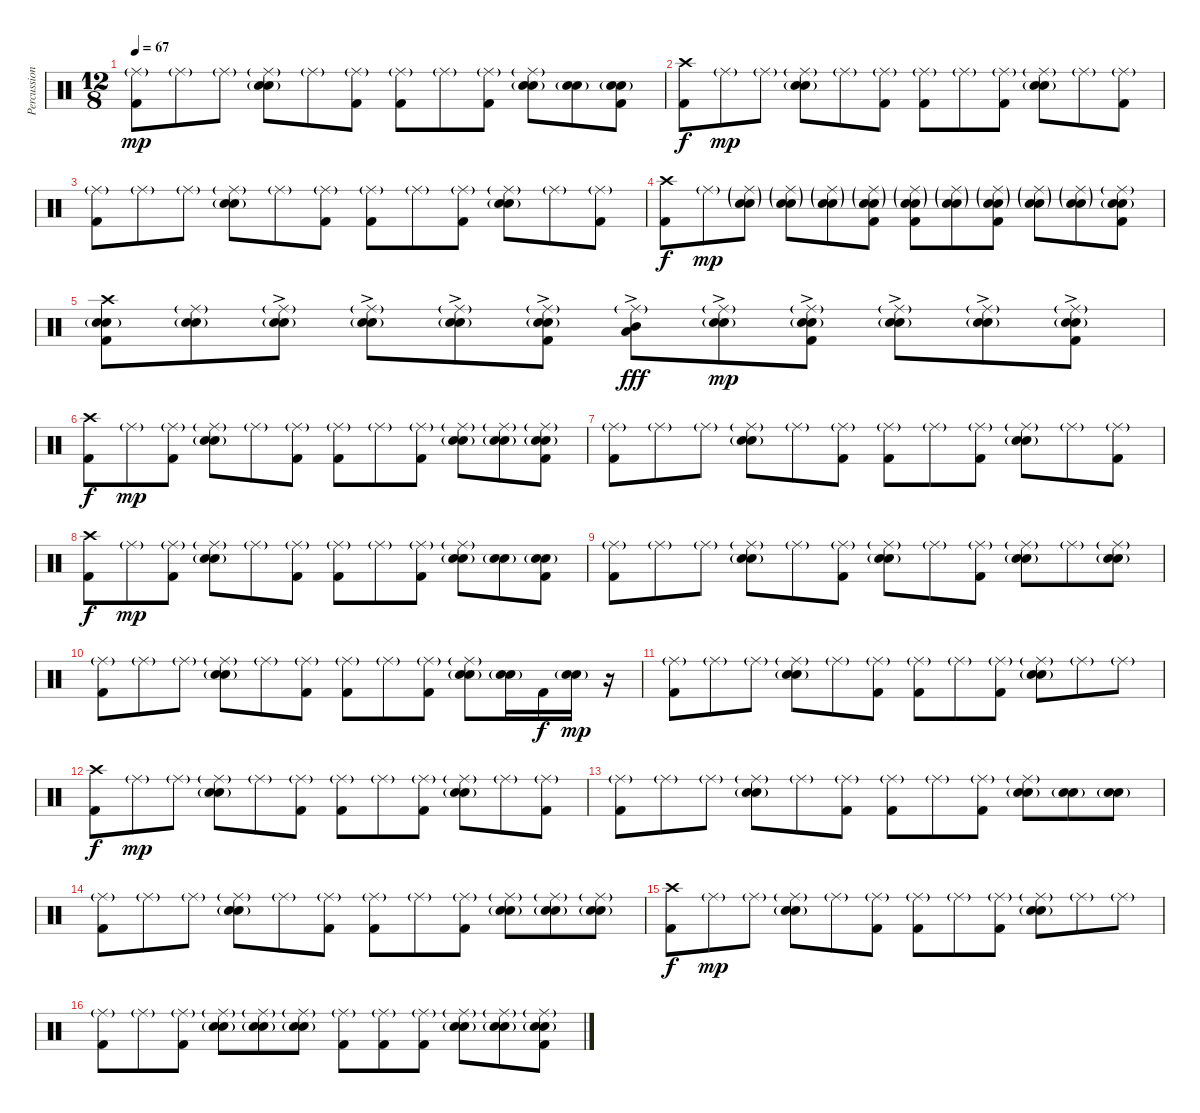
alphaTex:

\track ("Percussion" "Percussion") {instrument percussion}
\staff {score}
\articulation defaults
\ts (12 8)
\tempo 67
\clef neutral
\ks c
("Ride (middle)"{g} "Kick (hit) 2").8{dy mp} "Ride (middle)"{g}.8 "Ride (middle)"{g}.8 ("Ride (middle)"{g} "Electric Snare (hit)" "Snare (hit) 2"{g}).8 "Ride (middle)"{g}.8 ("Ride (middle)"{g} "Kick (hit) 2").8 ("Ride (middle)"{g} "Kick (hit) 2").8 "Ride (middle)"{g}.8 ("Ride (middle)"{g} "Kick (hit) 2").8 ("Ride (middle)"{g} "Electric Snare (hit)" "Snare (hit) 2"{g}).8 ("Electric Snare (hit)"{g} "Snare (hit) 2"{g}).8 ("Electric Snare (hit)" "Snare (hit) 2"{g} "Kick (hit) 2").8 |
("Crash high (hit)" "Kick (hit) 2").8{dy f} "Ride (middle)"{g}.8{dy mp} "Ride (middle)"{g}.8 ("Ride (middle)"{g} "Electric Snare (hit)" "Snare (hit) 2"{g}).8 "Ride (middle)"{g}.8 ("Ride (middle)"{g} "Kick (hit) 2").8 ("Ride (middle)"{g} "Kick (hit) 2").8 "Ride (middle)"{g}.8 ("Ride (middle)"{g} "Kick (hit) 2").8 ("Ride (middle)"{g} "Electric Snare (hit)" "Snare (hit) 2"{g}).8 "Ride (middle)"{g}.8 ("Ride (middle)"{g} "Kick (hit) 2").8 |
("Ride (middle)"{g} "Kick (hit) 2").8 "Ride (middle)"{g}.8 "Ride (middle)"{g}.8 ("Ride (middle)"{g} "Electric Snare (hit)" "Snare (hit) 2"{g}).8 "Ride (middle)"{g}.8 ("Ride (middle)"{g} "Kick (hit) 2").8 ("Ride (middle)"{g} "Kick (hit) 2").8 "Ride (middle)"{g}.8 ("Ride (middle)"{g} "Kick (hit) 2").8 ("Ride (middle)"{g} "Electric Snare (hit)" "Snare (hit) 2"{g}).8 "Ride (middle)"{g}.8 ("Ride (middle)"{g} "Kick (hit) 2").8 |
("Crash high (hit)" "Kick (hit) 2").8{dy f} "Ride (middle)"{g}.8{dy mp} ("Ride (middle)"{g} "Electric Snare (hit)"{g} "Snare (hit) 2"{g}).8 ("Ride (middle)"{g} "Electric Snare (hit)"{g} "Snare (hit) 2"{g}).8 ("Ride (middle)"{g} "Electric Snare (hit)"{g} "Snare (hit) 2"{g}).8 ("Ride (middle)"{g} "Electric Snare (hit)"{g} "Snare (hit) 2"{g} "Kick (hit) 2").8 ("Ride (middle)"{g} "Electric Snare (hit)"{g} "Snare (hit) 2"{g} "Kick (hit) 2").8 ("Ride (middle)"{g} "Electric Snare (hit)"{g} "Snare (hit) 2"{g}).8 ("Ride (middle)"{g} "Electric Snare (hit)"{g} "Snare (hit) 2"{g} "Kick (hit) 2").8 ("Ride (middle)"{g} "Electric Snare (hit)"{g} "Snare (hit) 2"{g}).8 ("Ride (middle)"{g} "Electric Snare (hit)"{g} "Snare (hit) 2"{g}).8 ("Ride (middle)"{g} "Electric Snare (hit)" "Snare (hit) 2"{g} "Kick (hit) 2").8 |
("Crash high (hit)" "Electric Snare (hit)" "Snare (hit) 2"{g} "Kick (hit) 2").8 ("Ride (middle)"{g} "Electric Snare (hit)" "Snare (hit) 2"{g}).8 ("Ride (middle)"{g} "Electric Snare (hit)"{ac} "Snare (hit) 2"{g}).8 ("Ride (middle)"{g} "Electric Snare (hit)"{ac} "Snare (hit) 2"{g}).8 ("Ride (middle)"{g} "Electric Snare (hit)"{ac} "Snare (hit) 2"{g}).8 ("Ride (middle)"{g} "Electric Snare (hit)"{ac} "Snare (hit) 2"{g} "Kick (hit) 2").8 ("Ride (middle)"{g} "Mid Tom (hit)"{ac} "Low Tom (hit)").8{dy fff} ("Ride (middle)"{g} "Electric Snare (hit)"{ac} "Snare (hit) 2"{g}).8{dy mp} ("Ride (middle)"{g} "Electric Snare (hit)"{ac} "Snare (hit) 2"{g} "Kick (hit) 2").8 ("Ride (middle)"{g} "Electric Snare (hit)"{ac} "Snare (hit) 2"{g}).8 ("Ride (middle)"{g} "Electric Snare (hit)"{ac} "Snare (hit) 2"{g}).8 ("Ride (middle)"{g} "Electric Snare (hit)"{ac} "Snare (hit) 2"{g} "Kick (hit) 2").8 |
("Crash high (hit)" "Kick (hit) 2").8{dy f} "Ride (middle)"{g}.8{dy mp} ("Ride (middle)"{g} "Kick (hit) 2").8 ("Ride (middle)"{g} "Electric Snare (hit)" "Snare (hit) 2"{g}).8 "Ride (middle)"{g}.8 ("Ride (middle)"{g} "Kick (hit) 2").8 ("Ride (middle)"{g} "Kick (hit) 2").8 "Ride (middle)"{g}.8 ("Ride (middle)"{g} "Kick (hit) 2").8 ("Ride (middle)"{g} "Electric Snare (hit)" "Snare (hit) 2"{g}).8 ("Ride (middle)"{g} "Electric Snare (hit)" "Snare (hit) 2"{g}).8 ("Ride (middle)"{g} "Electric Snare (hit)" "Snare (hit) 2"{g} "Kick (hit) 2").8 |
("Ride (middle)"{g} "Kick (hit) 2").8 "Ride (middle)"{g}.8 "Ride (middle)"{g}.8 ("Ride (middle)"{g} "Electric Snare (hit)" "Snare (hit) 2"{g}).8 "Ride (middle)"{g}.8 ("Ride (middle)"{g} "Kick (hit) 2").8 ("Ride (middle)"{g} "Kick (hit) 2").8 "Ride (middle)"{g}.8 ("Ride (middle)"{g} "Kick (hit) 2").8 ("Ride (middle)"{g} "Electric Snare (hit)" "Snare (hit) 2"{g}).8 "Ride (middle)"{g}.8 ("Ride (middle)"{g} "Kick (hit) 2").8 |
("Crash high (hit)" "Kick (hit) 2").8{dy f} "Ride (middle)"{g}.8{dy mp} ("Ride (middle)"{g} "Kick (hit) 2").8 ("Ride (middle)"{g} "Electric Snare (hit)" "Snare (hit) 2"{g}).8 "Ride (middle)"{g}.8 ("Ride (middle)"{g} "Kick (hit) 2").8 ("Ride (middle)"{g} "Kick (hit) 2").8 "Ride (middle)"{g}.8 ("Ride (middle)"{g} "Kick (hit) 2").8 ("Ride (middle)"{g} "Electric Snare (hit)" "Snare (hit) 2"{g}).8 ("Electric Snare (hit)" "Snare (hit) 2"{g}).8 ("Electric Snare (hit)" "Snare (hit) 2"{g} "Kick (hit) 2").8 |
("Ride (middle)"{g} "Kick (hit) 2").8 "Ride (middle)"{g}.8 "Ride (middle)"{g}.8 ("Ride (middle)"{g} "Electric Snare (hit)" "Snare (hit) 2"{g}).8 "Ride (middle)"{g}.8 ("Ride (middle)"{g} "Kick (hit) 2").8 ("Ride (middle)"{g} "Electric Snare (hit)" "Snare (hit) 2"{g}).8 "Ride (middle)"{g}.8 ("Ride (middle)"{g} "Kick (hit) 2").8 ("Ride (middle)"{g} "Electric Snare (hit)" "Snare (hit) 2"{g}).8 "Ride (middle)"{g}.8 ("Ride (middle)"{g} "Electric Snare (hit)" "Snare (hit) 2"{g}).8 |
("Ride (middle)"{g} "Kick (hit) 2").8 "Ride (middle)"{g}.8 "Ride (middle)"{g}.8 ("Ride (middle)"{g} "Electric Snare (hit)" "Snare (hit) 2"{g}).8 "Ride (middle)"{g}.8 ("Ride (middle)"{g} "Kick (hit) 2").8 ("Ride (middle)"{g} "Kick (hit) 2").8 "Ride (middle)"{g}.8 ("Ride (middle)"{g} "Kick (hit) 2").8 ("Ride (middle)"{g} "Electric Snare (hit)" "Snare (hit) 2"{g}).8 ("Electric Snare (hit)"{g} "Snare (hit) 2"{g}).16 "Kick (hit) 2".16{dy f} ("Electric Snare (hit)" "Snare (hit) 2"{g}).16{dy mp} r.16 |
("Ride (middle)"{g} "Kick (hit) 2").8 "Ride (middle)"{g}.8 "Ride (middle)"{g}.8 ("Ride (middle)"{g} "Electric Snare (hit)" "Snare (hit) 2"{g}).8 "Ride (middle)"{g}.8 ("Ride (middle)"{g} "Kick (hit) 2").8 ("Ride (middle)"{g} "Kick (hit) 2").8 "Ride (middle)"{g}.8 ("Ride (middle)"{g} "Kick (hit) 2").8 ("Ride (middle)"{g} "Electric Snare (hit)" "Snare (hit) 2"{g}).8 "Ride (middle)"{g}.8 "Ride (middle)"{g}.8 |
("Crash high (hit)" "Kick (hit) 2").8{dy f} "Ride (middle)"{g}.8{dy mp} "Ride (middle)"{g}.8 ("Ride (middle)"{g} "Electric Snare (hit)" "Snare (hit) 2"{g}).8 "Ride (middle)"{g}.8 ("Ride (middle)"{g} "Kick (hit) 2").8 ("Ride (middle)"{g} "Kick (hit) 2").8 "Ride (middle)"{g}.8 ("Ride (middle)"{g} "Kick (hit) 2").8 ("Ride (middle)"{g} "Electric Snare (hit)" "Snare (hit) 2"{g}).8 "Ride (middle)"{g}.8 ("Ride (middle)"{g} "Kick (hit) 2").8 |
("Ride (middle)"{g} "Kick (hit) 2").8 "Ride (middle)"{g}.8 "Ride (middle)"{g}.8 ("Ride (middle)"{g} "Electric Snare (hit)" "Snare (hit) 2"{g}).8 "Ride (middle)"{g}.8 ("Ride (middle)"{g} "Kick (hit) 2").8 ("Ride (middle)"{g} "Kick (hit) 2").8 "Ride (middle)"{g}.8 ("Ride (middle)"{g} "Kick (hit) 2").8 ("Ride (middle)"{g} "Electric Snare (hit)" "Snare (hit) 2"{g}).8 ("Electric Snare (hit)" "Snare (hit) 2"{g}).8 ("Electric Snare (hit)" "Snare (hit) 2"{g}).8 |
("Ride (middle)"{g} "Kick (hit) 2").8 "Ride (middle)"{g}.8 "Ride (middle)"{g}.8 ("Ride (middle)"{g} "Electric Snare (hit)" "Snare (hit) 2"{g}).8 "Ride (middle)"{g}.8 ("Ride (middle)"{g} "Kick (hit) 2").8 ("Ride (middle)"{g} "Kick (hit) 2").8 "Ride (middle)"{g}.8 ("Ride (middle)"{g} "Kick (hit) 2").8 ("Ride (middle)"{g} "Electric Snare (hit)" "Snare (hit) 2"{g}).8 ("Ride (middle)"{g} "Electric Snare (hit)" "Snare (hit) 2"{g}).8 ("Ride (middle)"{g} "Electric Snare (hit)" "Snare (hit) 2"{g}).8 |
("Crash high (hit)" "Kick (hit) 2").8{dy f} "Ride (middle)"{g}.8{dy mp} "Ride (middle)"{g}.8 ("Ride (middle)"{g} "Electric Snare (hit)" "Snare (hit) 2"{g}).8 "Ride (middle)"{g}.8 ("Ride (middle)"{g} "Kick (hit) 2").8 ("Ride (middle)"{g} "Kick (hit) 2").8 "Ride (middle)"{g}.8 ("Ride (middle)"{g} "Kick (hit) 2").8 ("Ride (middle)"{g} "Electric Snare (hit)" "Snare (hit) 2"{g}).8 "Ride (middle)"{g}.8 "Ride (middle)"{g}.8 |
("Ride (middle)"{g} "Kick (hit) 2").8 "Ride (middle)"{g}.8 ("Ride (middle)"{g} "Kick (hit) 2").8 ("Ride (middle)"{g} "Electric Snare (hit)" "Snare (hit) 2"{g}).8 ("Ride (middle)"{g} "Electric Snare (hit)" "Snare (hit) 2"{g}).8 ("Ride (middle)"{g} "Electric Snare (hit)" "Snare (hit) 2"{g}).8 ("Ride (middle)"{g} "Kick (hit) 2").8 ("Ride (middle)"{g} "Kick (hit) 2").8 ("Ride (middle)"{g} "Kick (hit) 2").8 ("Ride (middle)"{g} "Electric Snare (hit)" "Snare (hit) 2"{g}).8 ("Ride (middle)"{g} "Electric Snare (hit)" "Snare (hit) 2"{g}).8 ("Ride (middle)"{g} "Electric Snare (hit)" "Snare (hit) 2"{g} "Kick (hit) 2").8
